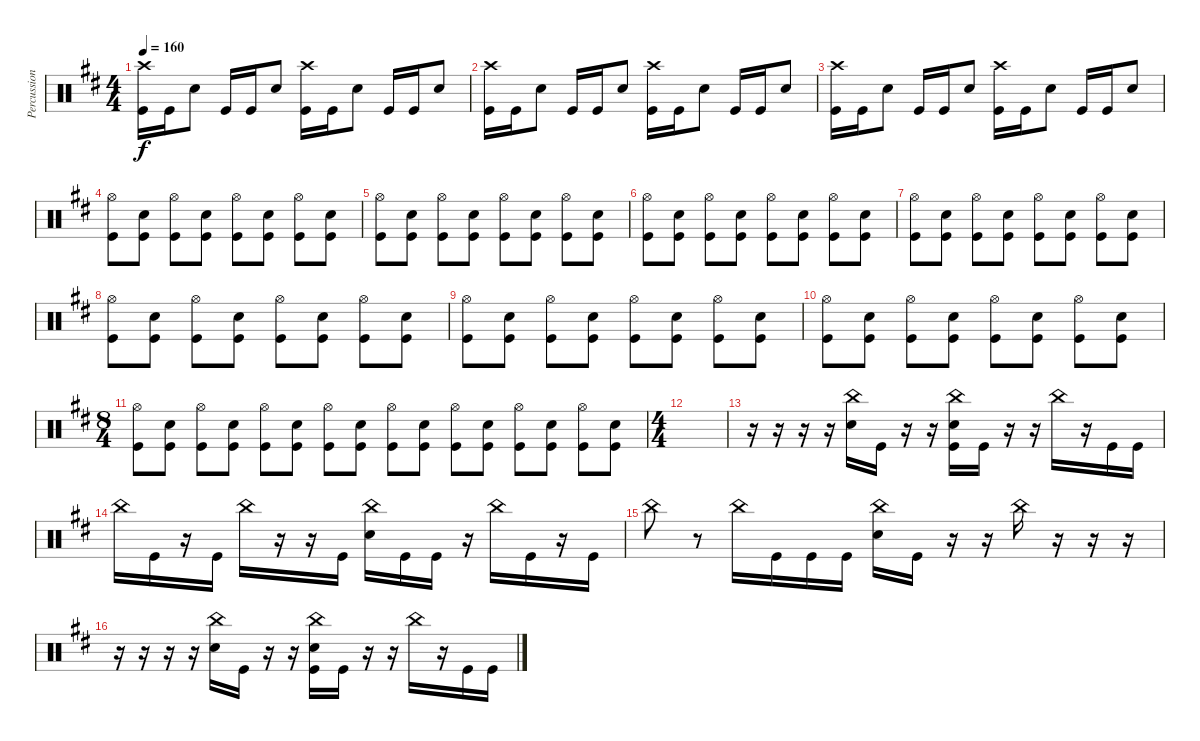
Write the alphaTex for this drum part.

\track ("Percussion" "Percussion") {instrument percussion}
\staff {score}
\articulation defaults
\ts (4 4)
\tempo 160
\clef neutral
\ks bminor
("Crash high (hit)" "Kick (hit)").16{dy f} "Kick (hit)".16 "Snare (hit) 2".8 "Kick (hit)".16 "Kick (hit)".16 "Snare (hit) 2".8 ("Crash high (hit)" "Kick (hit)").16 "Kick (hit)".16 "Snare (hit) 2".8 "Kick (hit)".16 "Kick (hit)".16 "Snare (hit) 2".8 |
("Crash high (hit)" "Kick (hit)").16 "Kick (hit)".16 "Snare (hit) 2".8 "Kick (hit)".16 "Kick (hit)".16 "Snare (hit) 2".8 ("Crash high (hit)" "Kick (hit)").16 "Kick (hit)".16 "Snare (hit) 2".8 "Kick (hit)".16 "Kick (hit)".16 "Snare (hit) 2".8 |
("Crash high (hit)" "Kick (hit)").16 "Kick (hit)".16 "Snare (hit) 2".8 "Kick (hit)".16 "Kick (hit)".16 "Snare (hit) 2".8 ("Crash high (hit)" "Kick (hit)").16 "Kick (hit)".16 "Snare (hit) 2".8 "Kick (hit)".16 "Kick (hit)".16 "Snare (hit) 2".8 |
("Hi-Hat (open)" "Kick (hit)").8 ("Snare (hit) 2" "Kick (hit)").8 ("Hi-Hat (open)" "Kick (hit)").8 ("Snare (hit) 2" "Kick (hit)").8 ("Hi-Hat (open)" "Kick (hit)").8 ("Snare (hit) 2" "Kick (hit)").8 ("Hi-Hat (open)" "Kick (hit)").8 ("Snare (hit) 2" "Kick (hit)").8 |
("Hi-Hat (open)" "Kick (hit)").8 ("Snare (hit) 2" "Kick (hit)").8 ("Hi-Hat (open)" "Kick (hit)").8 ("Snare (hit) 2" "Kick (hit)").8 ("Hi-Hat (open)" "Kick (hit)").8 ("Snare (hit) 2" "Kick (hit)").8 ("Hi-Hat (open)" "Kick (hit)").8 ("Snare (hit) 2" "Kick (hit)").8 |
("Hi-Hat (open)" "Kick (hit)").8 ("Snare (hit) 2" "Kick (hit)").8 ("Hi-Hat (open)" "Kick (hit)").8 ("Snare (hit) 2" "Kick (hit)").8 ("Hi-Hat (open)" "Kick (hit)").8 ("Snare (hit) 2" "Kick (hit)").8 ("Hi-Hat (open)" "Kick (hit)").8 ("Snare (hit) 2" "Kick (hit)").8 |
("Hi-Hat (open)" "Kick (hit)").8 ("Snare (hit) 2" "Kick (hit)").8 ("Hi-Hat (open)" "Kick (hit)").8 ("Snare (hit) 2" "Kick (hit)").8 ("Hi-Hat (open)" "Kick (hit)").8 ("Snare (hit) 2" "Kick (hit)").8 ("Hi-Hat (open)" "Kick (hit)").8 ("Snare (hit) 2" "Kick (hit)").8 |
("Hi-Hat (open)" "Kick (hit)").8 ("Snare (hit) 2" "Kick (hit)").8 ("Hi-Hat (open)" "Kick (hit)").8 ("Snare (hit) 2" "Kick (hit)").8 ("Hi-Hat (open)" "Kick (hit)").8 ("Snare (hit) 2" "Kick (hit)").8 ("Hi-Hat (open)" "Kick (hit)").8 ("Snare (hit) 2" "Kick (hit)").8 |
("Hi-Hat (open)" "Kick (hit)").8 ("Snare (hit) 2" "Kick (hit)").8 ("Hi-Hat (open)" "Kick (hit)").8 ("Snare (hit) 2" "Kick (hit)").8 ("Hi-Hat (open)" "Kick (hit)").8 ("Snare (hit) 2" "Kick (hit)").8 ("Hi-Hat (open)" "Kick (hit)").8 ("Snare (hit) 2" "Kick (hit)").8 |
("Hi-Hat (open)" "Kick (hit)").8 ("Snare (hit) 2" "Kick (hit)").8 ("Hi-Hat (open)" "Kick (hit)").8 ("Snare (hit) 2" "Kick (hit)").8 ("Hi-Hat (open)" "Kick (hit)").8 ("Snare (hit) 2" "Kick (hit)").8 ("Hi-Hat (open)" "Kick (hit)").8 ("Snare (hit) 2" "Kick (hit)").8 |
\ts (8 4)
("Hi-Hat (open)" "Kick (hit)").8 ("Snare (hit) 2" "Kick (hit)").8 ("Hi-Hat (open)" "Kick (hit)").8 ("Snare (hit) 2" "Kick (hit)").8 ("Hi-Hat (open)" "Kick (hit)").8 ("Snare (hit) 2" "Kick (hit)").8 ("Hi-Hat (open)" "Kick (hit)").8 ("Snare (hit) 2" "Kick (hit)").8 ("Hi-Hat (open)" "Kick (hit)").8 ("Snare (hit) 2" "Kick (hit)").8 ("Hi-Hat (open)" "Kick (hit)").8 ("Snare (hit) 2" "Kick (hit)").8 ("Hi-Hat (open)" "Kick (hit)").8 ("Snare (hit) 2" "Kick (hit)").8 ("Hi-Hat (open)" "Kick (hit)").8 ("Snare (hit) 2" "Kick (hit)").8 |
\ts (4 4)
|
r.16 r.16 r.16 r.16 ("China (hit)" "Snare (hit)").16 "Kick (hit)".16 r.16 r.16 ("China (hit)" "Snare (hit) 2" "Kick (hit)").16 "Kick (hit)".16 r.16 r.16 "China (hit)".16 r.16 "Kick (hit)".16 "Kick (hit)".16 |
"China (hit)".16 "Kick (hit)".16 r.16 "Kick (hit)".16 "China (hit)".16 r.16 r.16 "Kick (hit)".16 ("China (hit)" "Snare (hit) 2").16 "Kick (hit)".16 "Kick (hit)".16 r.16 "China (hit)".16 "Kick (hit)".16 r.16 "Kick (hit)".16 |
"China (hit)".8 r.8 "China (hit)".16 "Kick (hit)".16 "Kick (hit)".16 "Kick (hit)".16 ("China (hit)" "Snare (hit) 2").16 "Kick (hit)".16 r.16 r.16 "China (hit)".16 r.16 r.16 r.16 |
r.16 r.16 r.16 r.16 ("China (hit)" "Snare (hit)").16 "Kick (hit)".16 r.16 r.16 ("China (hit)" "Snare (hit) 2" "Kick (hit)").16 "Kick (hit)".16 r.16 r.16 "China (hit)".16 r.16 "Kick (hit)".16 "Kick (hit)".16
